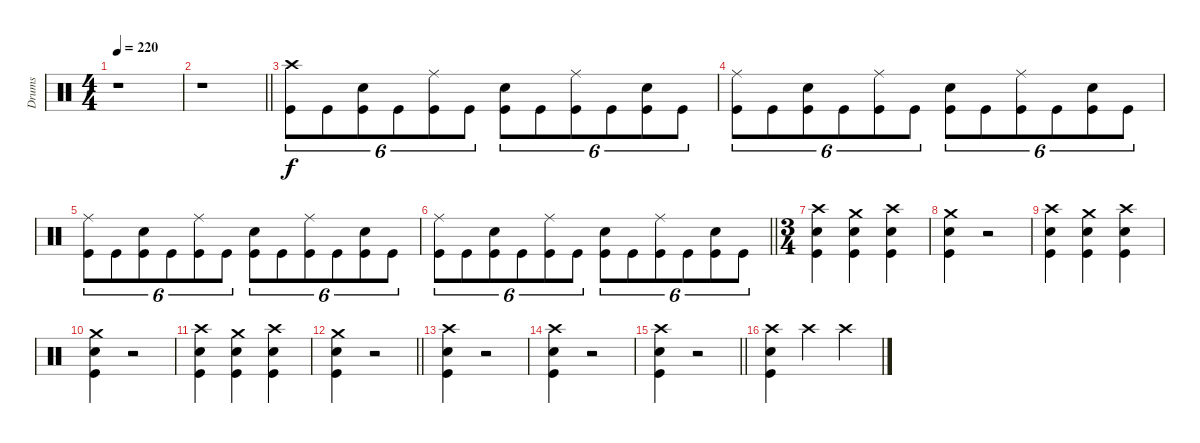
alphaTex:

\track ("Drums" "Drums") {instrument percussion}
\staff {score}
\articulation defaults
\ts (4 4)
\section ("" "")
\tempo 220
\clef neutral
\ks c
r.1{dy f} |
\barLineRight lightlight
r.1 |
\section ("" "")
("Crash high (hit)" "Kick (hit)").8{tu (6 4)} "Kick (hit)".8{tu (6 4)} ("Electric Snare (hit)" "Kick (hit)").8{tu (6 4)} "Kick (hit)".8{tu (6 4)} ("Ride (middle)" "Kick (hit)").8{tu (6 4)} "Kick (hit)".8{tu (6 4)} ("Electric Snare (hit)" "Kick (hit)").8{tu (6 4)} "Kick (hit)".8{tu (6 4)} ("Ride (middle)" "Kick (hit)").8{tu (6 4)} "Kick (hit)".8{tu (6 4)} ("Electric Snare (hit)" "Kick (hit)").8{tu (6 4)} "Kick (hit)".8{tu (6 4)} |
("Ride (middle)" "Kick (hit)").8{tu (6 4)} "Kick (hit)".8{tu (6 4)} ("Electric Snare (hit)" "Kick (hit)").8{tu (6 4)} "Kick (hit)".8{tu (6 4)} ("Ride (middle)" "Kick (hit)").8{tu (6 4)} "Kick (hit)".8{tu (6 4)} ("Electric Snare (hit)" "Kick (hit)").8{tu (6 4)} "Kick (hit)".8{tu (6 4)} ("Ride (middle)" "Kick (hit)").8{tu (6 4)} "Kick (hit)".8{tu (6 4)} ("Electric Snare (hit)" "Kick (hit)").8{tu (6 4)} "Kick (hit)".8{tu (6 4)} |
("Ride (middle)" "Kick (hit)").8{tu (6 4)} "Kick (hit)".8{tu (6 4)} ("Electric Snare (hit)" "Kick (hit)").8{tu (6 4)} "Kick (hit)".8{tu (6 4)} ("Ride (middle)" "Kick (hit)").8{tu (6 4)} "Kick (hit)".8{tu (6 4)} ("Electric Snare (hit)" "Kick (hit)").8{tu (6 4)} "Kick (hit)".8{tu (6 4)} ("Ride (middle)" "Kick (hit)").8{tu (6 4)} "Kick (hit)".8{tu (6 4)} ("Electric Snare (hit)" "Kick (hit)").8{tu (6 4)} "Kick (hit)".8{tu (6 4)} |
\barLineRight lightlight
("Ride (middle)" "Kick (hit)").8{tu (6 4)} "Kick (hit)".8{tu (6 4)} ("Electric Snare (hit)" "Kick (hit)").8{tu (6 4)} "Kick (hit)".8{tu (6 4)} ("Ride (middle)" "Kick (hit)").8{tu (6 4)} "Kick (hit)".8{tu (6 4)} ("Electric Snare (hit)" "Kick (hit)").8{tu (6 4)} "Kick (hit)".8{tu (6 4)} ("Ride (middle)" "Kick (hit)").8{tu (6 4)} "Kick (hit)".8{tu (6 4)} ("Electric Snare (hit)" "Kick (hit)").8{tu (6 4)} "Kick (hit)".8{tu (6 4)} |
\ts (3 4)
\section ("" "")
("Crash high (hit)" "Electric Snare (hit)" "Kick (hit)").4 ("Crash medium (hit)" "Electric Snare (hit)" "Kick (hit)").4 ("Crash high (hit)" "Electric Snare (hit)" "Kick (hit)").4 |
("Crash medium (hit)" "Electric Snare (hit)" "Kick (hit)").4 r.2 |
("Crash high (hit)" "Electric Snare (hit)" "Kick (hit)").4 ("Crash medium (hit)" "Electric Snare (hit)" "Kick (hit)").4 ("Crash high (hit)" "Electric Snare (hit)" "Kick (hit)").4 |
("Crash medium (hit)" "Electric Snare (hit)" "Kick (hit)").4 r.2 |
("Crash high (hit)" "Electric Snare (hit)" "Kick (hit)").4 ("Crash medium (hit)" "Electric Snare (hit)" "Kick (hit)").4 ("Crash high (hit)" "Electric Snare (hit)" "Kick (hit)").4 |
\barLineRight lightlight
("Crash medium (hit)" "Electric Snare (hit)" "Kick (hit)").4 r.2 |
\section ("" "")
("Crash high (hit)" "Electric Snare (hit)" "Kick (hit)").4 r.2 |
("Crash high (hit)" "Electric Snare (hit)" "Kick (hit)").4 r.2 |
\barLineRight lightlight
("Crash high (hit)" "Electric Snare (hit)" "Kick (hit)").4 r.2 |
\section ("" "")
("Crash high (hit)" "Electric Snare (hit)" "Kick (hit)").4 "Crash high (hit)".4 "Crash high (hit)".4
